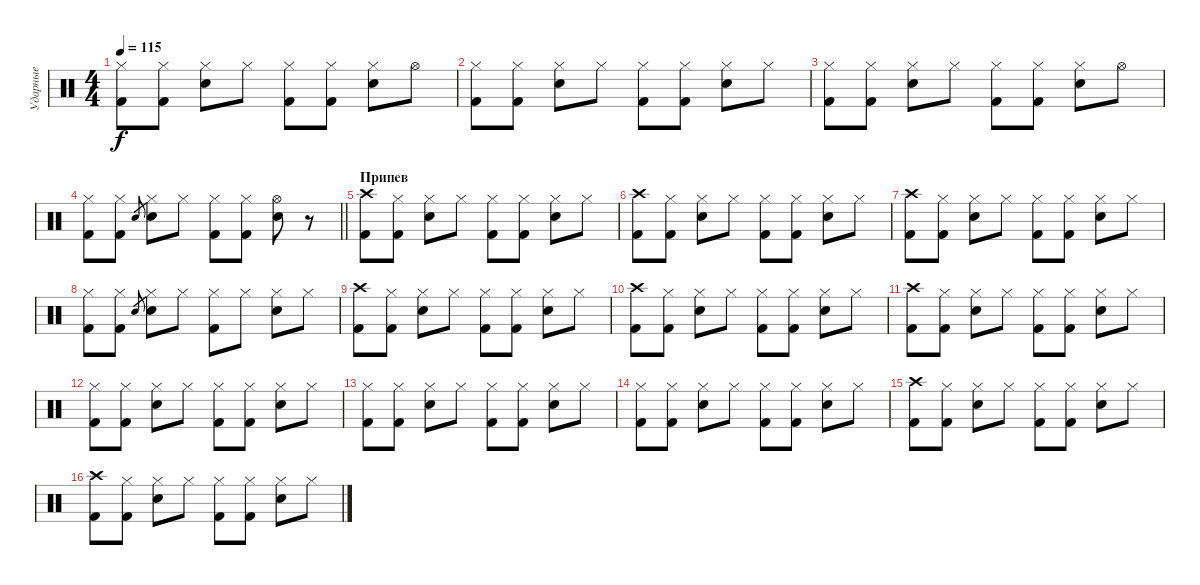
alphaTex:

\track ("Ударные" "Ударные") {instrument percussion}
\staff {score}
\articulation defaults
\ts (4 4)
\tempo 115
\clef neutral
\ks c
("Hi-Hat (closed)" "Kick (hit) 2").8{dy f} ("Hi-Hat (closed)" "Kick (hit) 2").8 ("Hi-Hat (closed)" "Snare (hit) 2").8 "Hi-Hat (closed)".8 ("Hi-Hat (closed)" "Kick (hit) 2").8 ("Hi-Hat (closed)" "Kick (hit) 2").8 ("Hi-Hat (closed)" "Snare (hit) 2").8 "Hi-Hat (open)".8 |
("Hi-Hat (closed)" "Kick (hit) 2").8 ("Hi-Hat (closed)" "Kick (hit) 2").8 ("Hi-Hat (closed)" "Snare (hit) 2").8 "Hi-Hat (closed)".8 ("Hi-Hat (closed)" "Kick (hit) 2").8 ("Hi-Hat (closed)" "Kick (hit) 2").8 ("Hi-Hat (closed)" "Snare (hit) 2").8 "Hi-Hat (closed)".8 |
("Hi-Hat (closed)" "Kick (hit) 2").8 ("Hi-Hat (closed)" "Kick (hit) 2").8 ("Hi-Hat (closed)" "Snare (hit) 2").8 "Hi-Hat (closed)".8 ("Hi-Hat (closed)" "Kick (hit) 2").8 ("Hi-Hat (closed)" "Kick (hit) 2").8 ("Hi-Hat (closed)" "Snare (hit) 2").8 "Hi-Hat (open)".8 |
\barLineRight lightlight
("Hi-Hat (closed)" "Kick (hit) 2").8 ("Hi-Hat (closed)" "Kick (hit) 2").8 "Snare (hit) 2".8{gr} ("Hi-Hat (closed)" "Snare (hit) 2").8 "Hi-Hat (closed)".8 ("Hi-Hat (closed)" "Kick (hit) 2").8 ("Hi-Hat (closed)" "Kick (hit) 2").8 ("Hi-Hat (open)" "Snare (hit) 2").8 r.8 |
\section ("" "Припев")
("Crash high (hit)" "Kick (hit) 2").8 ("Hi-Hat (closed)" "Kick (hit) 2").8 ("Hi-Hat (closed)" "Snare (hit) 2").8 "Hi-Hat (closed)".8 ("Hi-Hat (closed)" "Kick (hit) 2").8 ("Hi-Hat (closed)" "Kick (hit) 2").8 ("Hi-Hat (closed)" "Snare (hit) 2").8 "Hi-Hat (closed)".8 |
("Crash high (hit)" "Kick (hit) 2").8 ("Hi-Hat (closed)" "Kick (hit) 2").8 ("Hi-Hat (closed)" "Snare (hit) 2").8 "Hi-Hat (closed)".8 ("Hi-Hat (closed)" "Kick (hit) 2").8 ("Hi-Hat (closed)" "Kick (hit) 2").8 ("Hi-Hat (closed)" "Snare (hit) 2").8 "Hi-Hat (closed)".8 |
("Crash high (hit)" "Kick (hit) 2").8 ("Hi-Hat (closed)" "Kick (hit) 2").8 ("Hi-Hat (closed)" "Snare (hit) 2").8 "Hi-Hat (closed)".8 ("Hi-Hat (closed)" "Kick (hit) 2").8 ("Hi-Hat (closed)" "Kick (hit) 2").8 ("Hi-Hat (closed)" "Snare (hit) 2").8 "Hi-Hat (closed)".8 |
("Hi-Hat (closed)" "Kick (hit) 2").8 ("Hi-Hat (closed)" "Kick (hit) 2").8 "Snare (hit) 2".8{gr} ("Hi-Hat (closed)" "Snare (hit) 2").8 "Hi-Hat (closed)".8 ("Hi-Hat (closed)" "Kick (hit) 2").8 "Hi-Hat (closed)".8 ("Hi-Hat (closed)" "Snare (hit) 2").8 "Hi-Hat (closed)".8 |
("Crash high (hit)" "Kick (hit) 2").8 ("Hi-Hat (closed)" "Kick (hit) 2").8 ("Hi-Hat (closed)" "Snare (hit) 2").8 "Hi-Hat (closed)".8 ("Hi-Hat (closed)" "Kick (hit) 2").8 ("Hi-Hat (closed)" "Kick (hit) 2").8 ("Hi-Hat (closed)" "Snare (hit) 2").8 "Hi-Hat (closed)".8 |
("Crash high (hit)" "Kick (hit) 2").8 ("Hi-Hat (closed)" "Kick (hit) 2").8 ("Hi-Hat (closed)" "Snare (hit) 2").8 "Hi-Hat (closed)".8 ("Hi-Hat (closed)" "Kick (hit) 2").8 ("Hi-Hat (closed)" "Kick (hit) 2").8 ("Hi-Hat (closed)" "Snare (hit) 2").8 "Hi-Hat (closed)".8 |
("Crash high (hit)" "Kick (hit) 2").8 ("Hi-Hat (closed)" "Kick (hit) 2").8 ("Hi-Hat (closed)" "Snare (hit) 2").8 "Hi-Hat (closed)".8 ("Hi-Hat (closed)" "Kick (hit) 2").8 ("Hi-Hat (closed)" "Kick (hit) 2").8 ("Hi-Hat (closed)" "Snare (hit) 2").8 "Hi-Hat (closed)".8 |
("Hi-Hat (closed)" "Kick (hit) 2").8 ("Hi-Hat (closed)" "Kick (hit) 2").8 ("Hi-Hat (closed)" "Snare (hit) 2").8 "Hi-Hat (closed)".8 ("Hi-Hat (closed)" "Kick (hit) 2").8 ("Hi-Hat (closed)" "Kick (hit) 2").8 ("Hi-Hat (closed)" "Snare (hit) 2").8 "Hi-Hat (closed)".8 |
("Hi-Hat (closed)" "Kick (hit) 2").8 ("Hi-Hat (closed)" "Kick (hit) 2").8 ("Hi-Hat (closed)" "Snare (hit) 2").8 "Hi-Hat (closed)".8 ("Hi-Hat (closed)" "Kick (hit) 2").8 ("Hi-Hat (closed)" "Kick (hit) 2").8 ("Hi-Hat (closed)" "Snare (hit) 2").8 "Hi-Hat (closed)".8 |
("Hi-Hat (closed)" "Kick (hit) 2").8 ("Hi-Hat (closed)" "Kick (hit) 2").8 ("Hi-Hat (closed)" "Snare (hit) 2").8 "Hi-Hat (closed)".8 ("Hi-Hat (closed)" "Kick (hit) 2").8 ("Hi-Hat (closed)" "Kick (hit) 2").8 ("Hi-Hat (closed)" "Snare (hit) 2").8 "Hi-Hat (closed)".8 |
("Crash high (hit)" "Kick (hit) 2").8 ("Hi-Hat (closed)" "Kick (hit) 2").8 ("Hi-Hat (closed)" "Snare (hit) 2").8 "Hi-Hat (closed)".8 ("Hi-Hat (closed)" "Kick (hit) 2").8 ("Hi-Hat (closed)" "Kick (hit) 2").8 ("Hi-Hat (closed)" "Snare (hit) 2").8 "Hi-Hat (closed)".8 |
("Crash high (hit)" "Kick (hit) 2").8 ("Hi-Hat (closed)" "Kick (hit) 2").8 ("Hi-Hat (closed)" "Snare (hit) 2").8 "Hi-Hat (closed)".8 ("Hi-Hat (closed)" "Kick (hit) 2").8 ("Hi-Hat (closed)" "Kick (hit) 2").8 ("Hi-Hat (closed)" "Snare (hit) 2").8 "Hi-Hat (closed)".8
